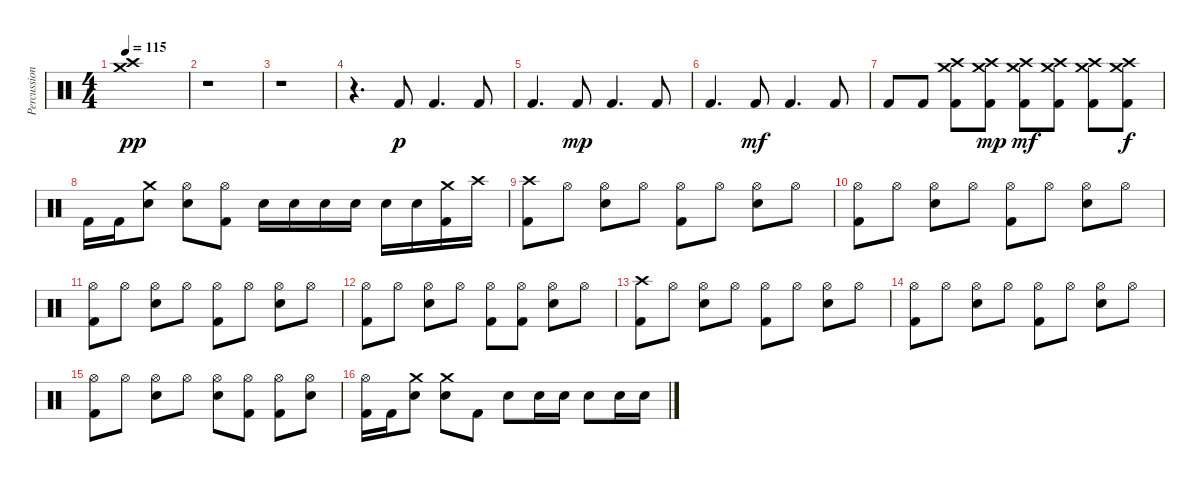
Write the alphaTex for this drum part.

\track ("Percussion" "Percussion") {instrument percussion}
\staff {score}
\articulation defaults
\ts (4 4)
\tempo 115
\clef neutral
\ks c
("Crash medium (hit)" "Crash high (hit)").1{dy pp} |
r.1 |
r.1 |
r.4{d} "Kick (hit) 2".8{dy p} "Kick (hit) 2".4{d} "Kick (hit) 2".8 |
"Kick (hit) 2".4{d} "Kick (hit) 2".8{dy mp} "Kick (hit) 2".4{d} "Kick (hit) 2".8 |
"Kick (hit) 2".4{d} "Kick (hit) 2".8{dy mf} "Kick (hit) 2".4{d} "Kick (hit) 2".8 |
"Kick (hit) 2".8 "Kick (hit) 2".8 ("Crash medium (hit)" "Crash high (hit)" "Kick (hit) 2").8 ("Crash medium (hit)" "Crash high (hit)" "Kick (hit) 2").8{dy mp} ("Crash medium (hit)" "Crash high (hit)" "Kick (hit) 2").8{dy mf} ("Crash medium (hit)" "Crash high (hit)" "Kick (hit) 2").8 ("Crash medium (hit)" "Crash high (hit)" "Kick (hit) 2").8 ("Crash medium (hit)" "Crash high (hit)" "Kick (hit) 2").8{dy f} |
"Kick (hit) 2".16 "Kick (hit) 2".16 ("Crash medium (hit)" "Electric Snare (hit)").8 ("Hi-Hat (open)" "Electric Snare (hit)").8 ("Hi-Hat (open)" "Kick (hit) 2").8 "Electric Snare (hit)".16 "Electric Snare (hit)".16 "Electric Snare (hit)".16 "Electric Snare (hit)".16 "Electric Snare (hit)".16 "Electric Snare (hit)".16 ("Crash medium (hit)" "Kick (hit) 2").16 "Crash high (hit)".16 |
("Crash high (hit)" "Kick (hit) 2").8 "Hi-Hat (open)".8 ("Hi-Hat (open)" "Electric Snare (hit)").8 "Hi-Hat (open)".8 ("Hi-Hat (open)" "Kick (hit) 2").8 "Hi-Hat (open)".8 ("Hi-Hat (open)" "Electric Snare (hit)").8 "Hi-Hat (open)".8 |
("Hi-Hat (open)" "Kick (hit) 2").8 "Hi-Hat (open)".8 ("Hi-Hat (open)" "Electric Snare (hit)").8 "Hi-Hat (open)".8 ("Hi-Hat (open)" "Kick (hit) 2").8 "Hi-Hat (open)".8 ("Hi-Hat (open)" "Electric Snare (hit)").8 "Hi-Hat (open)".8 |
("Hi-Hat (open)" "Kick (hit) 2").8 "Hi-Hat (open)".8 ("Hi-Hat (open)" "Electric Snare (hit)").8 "Hi-Hat (open)".8 ("Hi-Hat (open)" "Kick (hit) 2").8 "Hi-Hat (open)".8 ("Hi-Hat (open)" "Electric Snare (hit)").8 "Hi-Hat (open)".8 |
("Hi-Hat (open)" "Kick (hit) 2").8 "Hi-Hat (open)".8 ("Hi-Hat (open)" "Electric Snare (hit)").8 "Hi-Hat (open)".8 ("Hi-Hat (open)" "Kick (hit) 2").8 ("Hi-Hat (open)" "Kick (hit) 2").8 ("Hi-Hat (open)" "Electric Snare (hit)").8 "Hi-Hat (open)".8 |
("Crash high (hit)" "Kick (hit) 2").8 "Hi-Hat (open)".8 ("Hi-Hat (open)" "Electric Snare (hit)").8 "Hi-Hat (open)".8 ("Hi-Hat (open)" "Kick (hit) 2").8 "Hi-Hat (open)".8 ("Hi-Hat (open)" "Electric Snare (hit)").8 "Hi-Hat (open)".8 |
("Hi-Hat (open)" "Kick (hit) 2").8 "Hi-Hat (open)".8 ("Hi-Hat (open)" "Electric Snare (hit)").8 "Hi-Hat (open)".8 ("Hi-Hat (open)" "Kick (hit) 2").8 "Hi-Hat (open)".8 ("Hi-Hat (open)" "Electric Snare (hit)").8 "Hi-Hat (open)".8 |
("Hi-Hat (open)" "Kick (hit) 2").8 "Hi-Hat (open)".8 ("Hi-Hat (open)" "Electric Snare (hit)").8 "Hi-Hat (open)".8 ("Hi-Hat (open)" "Electric Snare (hit)").8 ("Hi-Hat (open)" "Kick (hit) 2").8 ("Hi-Hat (open)" "Kick (hit) 2").8 ("Hi-Hat (open)" "Electric Snare (hit)").8 |
("Hi-Hat (open)" "Kick (hit) 2").16 "Kick (hit) 2".16 ("Crash medium (hit)" "Electric Snare (hit)").8 ("Crash medium (hit)" "Electric Snare (hit)").8 "Kick (hit) 2".8 "Electric Snare (hit)".8 "Electric Snare (hit)".16 "Electric Snare (hit)".16 "Electric Snare (hit)".8 "Electric Snare (hit)".16 "Electric Snare (hit)".16
